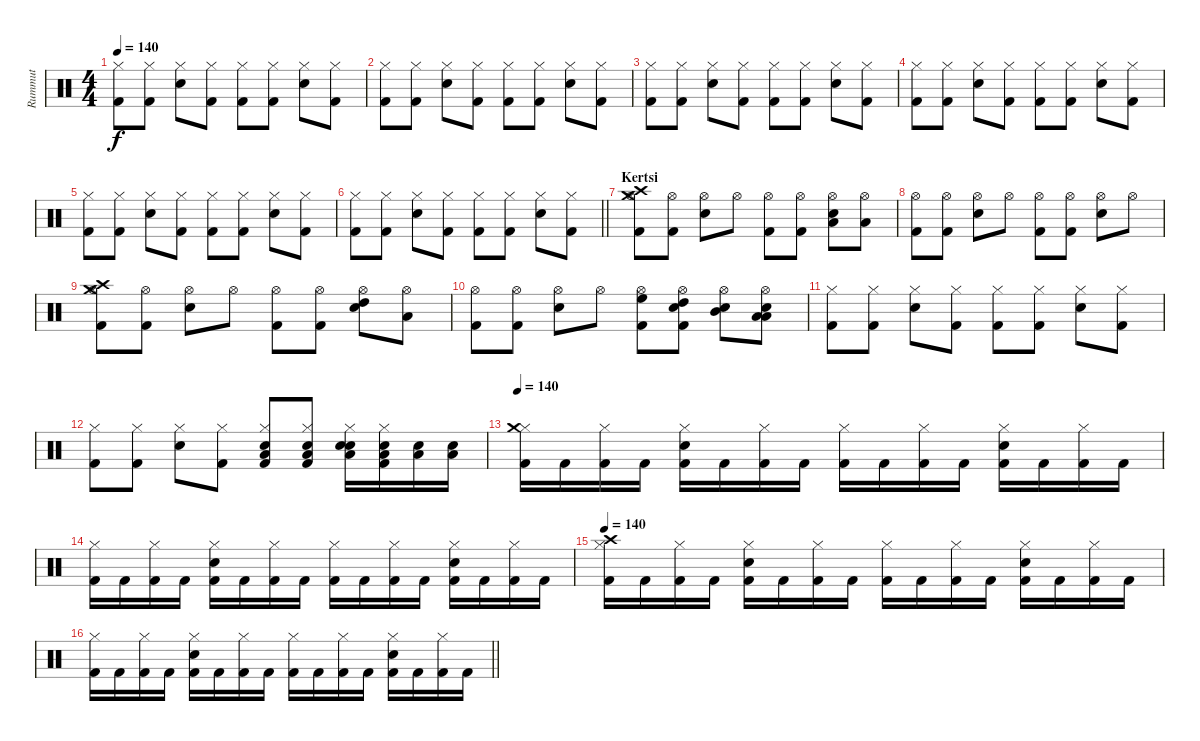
\track ("Rummut" "Rummut") {instrument percussion}
\staff {score}
\articulation defaults
\ts (4 4)
\tempo 140
\clef neutral
\ks c
("Kick (hit) 2" "Hi-Hat (closed)").8{dy f} ("Kick (hit) 2" "Hi-Hat (closed)").8 ("Snare (hit) 2" "Hi-Hat (closed)").8 ("Kick (hit) 2" "Hi-Hat (closed)").8 ("Kick (hit) 2" "Hi-Hat (closed)").8 ("Kick (hit) 2" "Hi-Hat (closed)").8 ("Snare (hit) 2" "Hi-Hat (closed)").8 ("Kick (hit) 2" "Hi-Hat (closed)").8 |
("Kick (hit) 2" "Hi-Hat (closed)").8 ("Kick (hit) 2" "Hi-Hat (closed)").8 ("Snare (hit) 2" "Hi-Hat (closed)").8 ("Kick (hit) 2" "Hi-Hat (closed)").8 ("Kick (hit) 2" "Hi-Hat (closed)").8 ("Kick (hit) 2" "Hi-Hat (closed)").8 ("Snare (hit) 2" "Hi-Hat (closed)").8 ("Kick (hit) 2" "Hi-Hat (closed)").8 |
("Kick (hit) 2" "Hi-Hat (closed)").8 ("Kick (hit) 2" "Hi-Hat (closed)").8 ("Snare (hit) 2" "Hi-Hat (closed)").8 ("Kick (hit) 2" "Hi-Hat (closed)").8 ("Kick (hit) 2" "Hi-Hat (closed)").8 ("Kick (hit) 2" "Hi-Hat (closed)").8 ("Snare (hit) 2" "Hi-Hat (closed)").8 ("Kick (hit) 2" "Hi-Hat (closed)").8 |
("Kick (hit) 2" "Hi-Hat (closed)").8 ("Kick (hit) 2" "Hi-Hat (closed)").8 ("Snare (hit) 2" "Hi-Hat (closed)").8 ("Kick (hit) 2" "Hi-Hat (closed)").8 ("Kick (hit) 2" "Hi-Hat (closed)").8 ("Kick (hit) 2" "Hi-Hat (closed)").8 ("Snare (hit) 2" "Hi-Hat (closed)").8 ("Kick (hit) 2" "Hi-Hat (closed)").8 |
("Kick (hit) 2" "Hi-Hat (closed)").8 ("Kick (hit) 2" "Hi-Hat (closed)").8 ("Snare (hit) 2" "Hi-Hat (closed)").8 ("Kick (hit) 2" "Hi-Hat (closed)").8 ("Kick (hit) 2" "Hi-Hat (closed)").8 ("Kick (hit) 2" "Hi-Hat (closed)").8 ("Snare (hit) 2" "Hi-Hat (closed)").8 ("Kick (hit) 2" "Hi-Hat (closed)").8 |
\barLineRight lightlight
("Kick (hit) 2" "Hi-Hat (closed)").8 ("Kick (hit) 2" "Hi-Hat (closed)").8 ("Snare (hit) 2" "Hi-Hat (closed)").8 ("Kick (hit) 2" "Hi-Hat (closed)").8 ("Kick (hit) 2" "Hi-Hat (closed)").8 ("Kick (hit) 2" "Hi-Hat (closed)").8 ("Snare (hit) 2" "Hi-Hat (closed)").8 ("Kick (hit) 2" "Hi-Hat (closed)").8 |
\section ("" "Kertsi")
("Kick (hit) 2" "Hi-Hat (open)" "Crash high (hit)" "Crash medium (hit)").8 ("Kick (hit) 2" "Hi-Hat (open)").8 ("Snare (hit) 2" "Hi-Hat (open)").8 "Hi-Hat (open)".8 ("Kick (hit) 2" "Hi-Hat (open)").8 ("Kick (hit) 2" "Hi-Hat (open)").8 ("Snare (hit) 2" "Hi-Hat (open)" "Low Tom (hit)").8 ("Hi-Hat (open)" "Low Tom (hit)").8 |
("Kick (hit) 2" "Hi-Hat (open)").8 ("Kick (hit) 2" "Hi-Hat (open)").8 ("Snare (hit) 2" "Hi-Hat (open)").8 "Hi-Hat (open)".8 ("Kick (hit) 2" "Hi-Hat (open)").8 ("Kick (hit) 2" "Hi-Hat (open)").8 ("Snare (hit) 2" "Hi-Hat (open)").8 "Hi-Hat (open)".8 |
("Kick (hit) 2" "Hi-Hat (open)" "Crash high (hit)" "Crash medium (hit)").8 ("Kick (hit) 2" "Hi-Hat (open)").8 ("Snare (hit) 2" "Hi-Hat (open)").8 "Hi-Hat (open)".8 ("Kick (hit) 2" "Hi-Hat (open)").8 ("Kick (hit) 2" "Hi-Hat (open)").8 ("Snare (hit) 2" "Hi-Hat (open)" "High Tom (hit)").8 ("Hi-Hat (open)" "Low Tom (hit)").8 |
("Kick (hit) 2" "Hi-Hat (open)").8 ("Kick (hit) 2" "Hi-Hat (open)").8 ("Snare (hit) 2" "Hi-Hat (open)").8 "Hi-Hat (open)".8 ("Kick (hit) 2" "Hi-Hat (open)" "High Floor Tom (hit)").8 ("Kick (hit) 2" "Hi-Hat (open)" "Snare (hit) 2" "High Tom (hit)").8 ("Snare (hit) 2" "Hi-Hat (open)" "Mid Tom (hit)").8 ("Hi-Hat (open)" "Snare (hit) 2" "Low Tom (hit)" "Low Floor Tom (hit)").8 |
("Kick (hit) 2" "Hi-Hat (closed)").8 ("Kick (hit) 2" "Hi-Hat (closed)").8 ("Snare (hit) 2" "Hi-Hat (closed)").8 ("Kick (hit) 2" "Hi-Hat (closed)").8 ("Kick (hit) 2" "Hi-Hat (closed)").8 ("Kick (hit) 2" "Hi-Hat (closed)").8 ("Snare (hit) 2" "Hi-Hat (closed)").8 ("Kick (hit) 2" "Hi-Hat (closed)").8 |
("Kick (hit) 2" "Hi-Hat (closed)").8 ("Kick (hit) 2" "Hi-Hat (closed)").8 ("Snare (hit) 2" "Hi-Hat (closed)").8 ("Kick (hit) 2" "Hi-Hat (closed)").8 ("Kick (hit) 2" "Hi-Hat (closed)" "Low Floor Tom (hit)" "Snare (hit) 2").8 ("Kick (hit) 2" "Hi-Hat (closed)" "Low Floor Tom (hit)" "Snare (hit) 2").8 ("Snare (hit) 2" "Hi-Hat (closed)" "Low Floor Tom (hit)" "Snare (hit) 2").16 ("Kick (hit) 2" "Hi-Hat (closed)" "Low Floor Tom (hit)" "Snare (hit) 2").16 ("Low Floor Tom (hit)" "Snare (hit) 2").16 ("Low Floor Tom (hit)" "Snare (hit) 2").16 |
\tempo 140
("Kick (hit) 2" "Hi-Hat (closed)" "Crash medium (hit)").16 "Kick (hit) 2".16 ("Kick (hit) 2" "Hi-Hat (closed)").16 "Kick (hit) 2".16 ("Kick (hit) 2" "Snare (hit) 2" "Hi-Hat (closed)").16 "Kick (hit) 2".16 ("Kick (hit) 2" "Hi-Hat (closed)").16 "Kick (hit) 2".16 ("Kick (hit) 2" "Hi-Hat (closed)").16 "Kick (hit) 2".16 ("Kick (hit) 2" "Hi-Hat (closed)").16 "Kick (hit) 2".16 ("Kick (hit) 2" "Snare (hit) 2" "Hi-Hat (closed)").16 "Kick (hit) 2".16 ("Kick (hit) 2" "Hi-Hat (closed)").16 "Kick (hit) 2".16 |
("Kick (hit) 2" "Hi-Hat (closed)").16 "Kick (hit) 2".16 ("Kick (hit) 2" "Hi-Hat (closed)").16 "Kick (hit) 2".16 ("Kick (hit) 2" "Snare (hit) 2" "Hi-Hat (closed)").16 "Kick (hit) 2".16 ("Kick (hit) 2" "Hi-Hat (closed)").16 "Kick (hit) 2".16 ("Kick (hit) 2" "Hi-Hat (closed)").16 "Kick (hit) 2".16 ("Kick (hit) 2" "Hi-Hat (closed)").16 "Kick (hit) 2".16 ("Kick (hit) 2" "Snare (hit) 2" "Hi-Hat (closed)").16 "Kick (hit) 2".16 ("Kick (hit) 2" "Hi-Hat (closed)").16 "Kick (hit) 2".16 |
\tempo 140
("Kick (hit) 2" "Hi-Hat (closed)" "Crash high (hit)").16 "Kick (hit) 2".16 ("Kick (hit) 2" "Hi-Hat (closed)").16 "Kick (hit) 2".16 ("Kick (hit) 2" "Snare (hit) 2" "Hi-Hat (closed)").16 "Kick (hit) 2".16 ("Kick (hit) 2" "Hi-Hat (closed)").16 "Kick (hit) 2".16 ("Kick (hit) 2" "Hi-Hat (closed)").16 "Kick (hit) 2".16 ("Kick (hit) 2" "Hi-Hat (closed)").16 "Kick (hit) 2".16 ("Kick (hit) 2" "Snare (hit) 2" "Hi-Hat (closed)").16 "Kick (hit) 2".16 ("Kick (hit) 2" "Hi-Hat (closed)").16 "Kick (hit) 2".16 |
\barLineRight lightlight
("Kick (hit) 2" "Hi-Hat (closed)").16 "Kick (hit) 2".16 ("Kick (hit) 2" "Hi-Hat (closed)").16 "Kick (hit) 2".16 ("Kick (hit) 2" "Snare (hit) 2" "Hi-Hat (closed)").16 "Kick (hit) 2".16 ("Kick (hit) 2" "Hi-Hat (closed)").16 "Kick (hit) 2".16 ("Kick (hit) 2" "Hi-Hat (closed)").16 "Kick (hit) 2".16 ("Kick (hit) 2" "Hi-Hat (closed)").16 "Kick (hit) 2".16 ("Kick (hit) 2" "Snare (hit) 2" "Hi-Hat (closed)").16 "Kick (hit) 2".16 ("Kick (hit) 2" "Hi-Hat (closed)").16 "Kick (hit) 2".16
